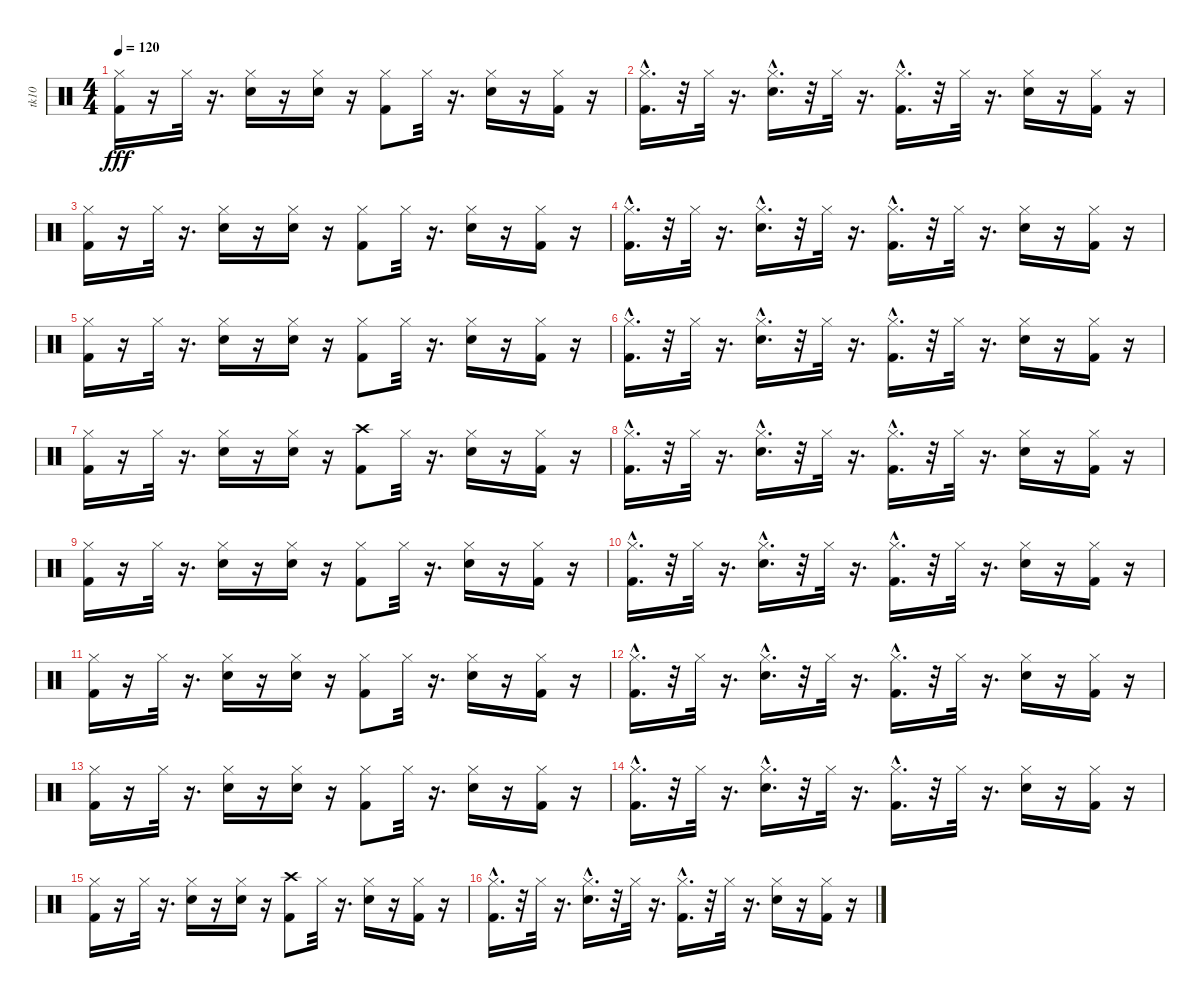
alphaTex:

\track ("tk10" "tk10") {instrument percussion}
\staff {score}
\articulation defaults
\ts (4 4)
\tempo 120
\clef neutral
\ks c
("Kick (hit) 2" "Hi-Hat (closed)").16{dy fff} r.16 "Hi-Hat (closed)".32 r.16{d} ("Hi-Hat (closed)" "Snare (hit) 2").16 r.16 ("Hi-Hat (closed)" "Snare (hit) 2").16 r.16 ("Hi-Hat (closed)" "Kick (hit) 2").8 "Hi-Hat (closed)".32 r.16{d} ("Hi-Hat (closed)" "Snare (hit) 2").16 r.16 ("Kick (hit) 2" "Hi-Hat (closed)").16 r.16 |
("Hi-Hat (closed)" "Kick (hit) 2"{hac}).16{d} r.32 "Hi-Hat (closed)".32 r.16{d} ("Hi-Hat (closed)" "Snare (hit) 2"{hac}).16{d} r.32 "Hi-Hat (closed)".32 r.16{d} ("Kick (hit) 2"{hac} "Hi-Hat (closed)").16{d} r.32 "Hi-Hat (closed)".32 r.16{d} ("Snare (hit) 2" "Hi-Hat (closed)").16 r.16 ("Hi-Hat (closed)" "Kick (hit) 2").16 r.16 |
("Hi-Hat (closed)" "Kick (hit) 2").16 r.16 "Hi-Hat (closed)".32 r.16{d} ("Hi-Hat (closed)" "Snare (hit) 2").16 r.16 ("Hi-Hat (closed)" "Snare (hit) 2").16 r.16 ("Hi-Hat (closed)" "Kick (hit) 2").8 "Hi-Hat (closed)".32 r.16{d} ("Snare (hit) 2" "Hi-Hat (closed)").16 r.16 ("Kick (hit) 2" "Hi-Hat (closed)").16 r.16 |
("Hi-Hat (closed)" "Kick (hit) 2"{hac}).16{d} r.32 "Hi-Hat (closed)".32 r.16{d} ("Snare (hit) 2"{hac} "Hi-Hat (closed)").16{d} r.32 "Hi-Hat (closed)".32 r.16{d} ("Hi-Hat (closed)" "Kick (hit) 2"{hac}).16{d} r.32 "Hi-Hat (closed)".32 r.16{d} ("Snare (hit) 2" "Hi-Hat (closed)").16 r.16 ("Kick (hit) 2" "Hi-Hat (closed)").16 r.16 |
("Hi-Hat (closed)" "Kick (hit) 2").16 r.16 "Hi-Hat (closed)".32 r.16{d} ("Snare (hit) 2" "Hi-Hat (closed)").16 r.16 ("Snare (hit) 2" "Hi-Hat (closed)").16 r.16 ("Kick (hit) 2" "Hi-Hat (closed)").8 "Hi-Hat (closed)".32 r.16{d} ("Hi-Hat (closed)" "Snare (hit) 2").16 r.16 ("Hi-Hat (closed)" "Kick (hit) 2").16 r.16 |
("Kick (hit) 2"{hac} "Hi-Hat (closed)").16{d} r.32 "Hi-Hat (closed)".32 r.16{d} ("Hi-Hat (closed)" "Snare (hit) 2"{hac}).16{d} r.32 "Hi-Hat (closed)".32 r.16{d} ("Kick (hit) 2"{hac} "Hi-Hat (closed)").16{d} r.32 "Hi-Hat (closed)".32 r.16{d} ("Hi-Hat (closed)" "Snare (hit) 2").16 r.16 ("Hi-Hat (closed)" "Kick (hit) 2").16 r.16 |
("Kick (hit) 2" "Hi-Hat (closed)").16 r.16 "Hi-Hat (closed)".32 r.16{d} ("Snare (hit) 2" "Hi-Hat (closed)").16 r.16 ("Snare (hit) 2" "Hi-Hat (closed)").16 r.16 ("Kick (hit) 2" "Crash high (hit)").8 "Hi-Hat (closed)".32 r.16{d} ("Snare (hit) 2" "Hi-Hat (closed)").16 r.16 ("Kick (hit) 2" "Hi-Hat (closed)").16 r.16 |
("Kick (hit) 2"{hac} "Hi-Hat (closed)").16{d} r.32 "Hi-Hat (closed)".32 r.16{d} ("Snare (hit) 2"{hac} "Hi-Hat (closed)").16{d} r.32 "Hi-Hat (closed)".32 r.16{d} ("Hi-Hat (closed)" "Kick (hit) 2"{hac}).16{d} r.32 "Hi-Hat (closed)".32 r.16{d} ("Hi-Hat (closed)" "Snare (hit) 2").16 r.16 ("Hi-Hat (closed)" "Kick (hit) 2").16 r.16 |
("Hi-Hat (closed)" "Kick (hit) 2").16 r.16 "Hi-Hat (closed)".32 r.16{d} ("Snare (hit) 2" "Hi-Hat (closed)").16 r.16 ("Hi-Hat (closed)" "Snare (hit) 2").16 r.16 ("Hi-Hat (closed)" "Kick (hit) 2").8 "Hi-Hat (closed)".32 r.16{d} ("Hi-Hat (closed)" "Snare (hit) 2").16 r.16 ("Kick (hit) 2" "Hi-Hat (closed)").16 r.16 |
("Kick (hit) 2"{hac} "Hi-Hat (closed)").16{d} r.32 "Hi-Hat (closed)".32 r.16{d} ("Hi-Hat (closed)" "Snare (hit) 2"{hac}).16{d} r.32 "Hi-Hat (closed)".32 r.16{d} ("Hi-Hat (closed)" "Kick (hit) 2"{hac}).16{d} r.32 "Hi-Hat (closed)".32 r.16{d} ("Snare (hit) 2" "Hi-Hat (closed)").16 r.16 ("Hi-Hat (closed)" "Kick (hit) 2").16 r.16 |
("Hi-Hat (closed)" "Kick (hit) 2").16 r.16 "Hi-Hat (closed)".32 r.16{d} ("Snare (hit) 2" "Hi-Hat (closed)").16 r.16 ("Hi-Hat (closed)" "Snare (hit) 2").16 r.16 ("Hi-Hat (closed)" "Kick (hit) 2").8 "Hi-Hat (closed)".32 r.16{d} ("Hi-Hat (closed)" "Snare (hit) 2").16 r.16 ("Kick (hit) 2" "Hi-Hat (closed)").16 r.16 |
("Kick (hit) 2"{hac} "Hi-Hat (closed)").16{d} r.32 "Hi-Hat (closed)".32 r.16{d} ("Hi-Hat (closed)" "Snare (hit) 2"{hac}).16{d} r.32 "Hi-Hat (closed)".32 r.16{d} ("Hi-Hat (closed)" "Kick (hit) 2"{hac}).16{d} r.32 "Hi-Hat (closed)".32 r.16{d} ("Hi-Hat (closed)" "Snare (hit) 2").16 r.16 ("Kick (hit) 2" "Hi-Hat (closed)").16 r.16 |
("Kick (hit) 2" "Hi-Hat (closed)").16 r.16 "Hi-Hat (closed)".32 r.16{d} ("Hi-Hat (closed)" "Snare (hit) 2").16 r.16 ("Hi-Hat (closed)" "Snare (hit) 2").16 r.16 ("Hi-Hat (closed)" "Kick (hit) 2").8 "Hi-Hat (closed)".32 r.16{d} ("Snare (hit) 2" "Hi-Hat (closed)").16 r.16 ("Hi-Hat (closed)" "Kick (hit) 2").16 r.16 |
("Kick (hit) 2"{hac} "Hi-Hat (closed)").16{d} r.32 "Hi-Hat (closed)".32 r.16{d} ("Hi-Hat (closed)" "Snare (hit) 2"{hac}).16{d} r.32 "Hi-Hat (closed)".32 r.16{d} ("Hi-Hat (closed)" "Kick (hit) 2"{hac}).16{d} r.32 "Hi-Hat (closed)".32 r.16{d} ("Hi-Hat (closed)" "Snare (hit) 2").16 r.16 ("Hi-Hat (closed)" "Kick (hit) 2").16 r.16 |
("Hi-Hat (closed)" "Kick (hit) 2").16 r.16 "Hi-Hat (closed)".32 r.16{d} ("Hi-Hat (closed)" "Snare (hit) 2").16 r.16 ("Snare (hit) 2" "Hi-Hat (closed)").16 r.16 ("Kick (hit) 2" "Crash high (hit)").8 "Hi-Hat (closed)".32 r.16{d} ("Snare (hit) 2" "Hi-Hat (closed)").16 r.16 ("Hi-Hat (closed)" "Kick (hit) 2").16 r.16 |
("Hi-Hat (closed)" "Kick (hit) 2"{hac}).16{d} r.32 "Hi-Hat (closed)".32 r.16{d} ("Snare (hit) 2"{hac} "Hi-Hat (closed)").16{d} r.32 "Hi-Hat (closed)".32 r.16{d} ("Hi-Hat (closed)" "Kick (hit) 2"{hac}).16{d} r.32 "Hi-Hat (closed)".32 r.16{d} ("Snare (hit) 2" "Hi-Hat (closed)").16 r.16 ("Kick (hit) 2" "Hi-Hat (closed)").16 r.16
